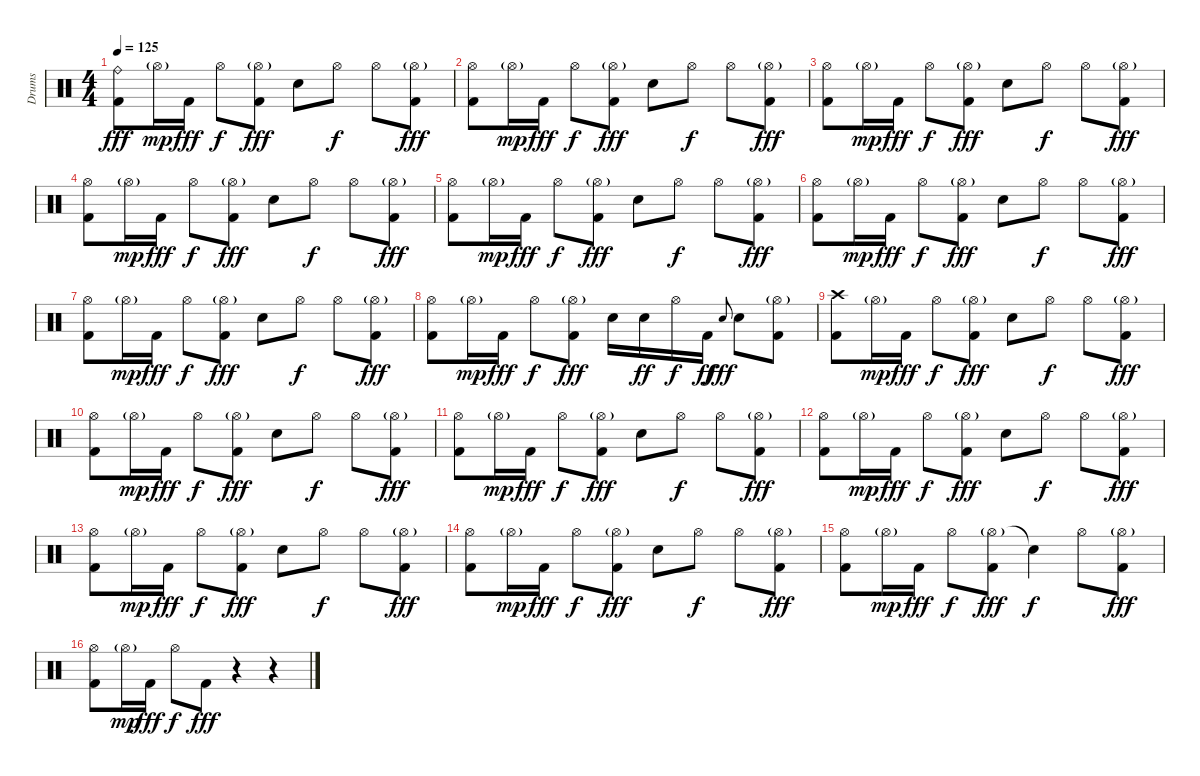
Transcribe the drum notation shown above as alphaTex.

\track ("Drums" "Drums") {instrument percussion}
\staff {score}
\articulation defaults
\ts (4 4)
\tempo 125
\clef neutral
\ks c
("Ride (bell)" "Kick (hit) 2").8{dy fff} "Hi-Hat (open)"{g}.16{dy mp} "Kick (hit) 2".16{dy fff} "Hi-Hat (open)".8{dy f} ("Hi-Hat (open)"{g} "Kick (hit) 2").8{dy fff} "Snare (hit) 2".8 "Hi-Hat (open)".8{dy f} "Hi-Hat (open)".8 ("Hi-Hat (open)"{g} "Kick (hit) 2").8{dy fff} |
("Hi-Hat (open)" "Kick (hit) 2").8 "Hi-Hat (open)"{g}.16{dy mp} "Kick (hit) 2".16{dy fff} "Hi-Hat (open)".8{dy f} ("Hi-Hat (open)"{g} "Kick (hit) 2").8{dy fff} "Snare (hit) 2".8 "Hi-Hat (open)".8{dy f} "Hi-Hat (open)".8 ("Hi-Hat (open)"{g} "Kick (hit) 2").8{dy fff} |
("Hi-Hat (open)" "Kick (hit) 2").8 "Hi-Hat (open)"{g}.16{dy mp} "Kick (hit) 2".16{dy fff} "Hi-Hat (open)".8{dy f} ("Hi-Hat (open)"{g} "Kick (hit) 2").8{dy fff} "Snare (hit) 2".8 "Hi-Hat (open)".8{dy f} "Hi-Hat (open)".8 ("Hi-Hat (open)"{g} "Kick (hit) 2").8{dy fff} |
("Hi-Hat (open)" "Kick (hit) 2").8 "Hi-Hat (open)"{g}.16{dy mp} "Kick (hit) 2".16{dy fff} "Hi-Hat (open)".8{dy f} ("Hi-Hat (open)"{g} "Kick (hit) 2").8{dy fff} "Snare (hit) 2".8 "Hi-Hat (open)".8{dy f} "Hi-Hat (open)".8 ("Hi-Hat (open)"{g} "Kick (hit) 2").8{dy fff} |
("Hi-Hat (open)" "Kick (hit) 2").8 "Hi-Hat (open)"{g}.16{dy mp} "Kick (hit) 2".16{dy fff} "Hi-Hat (open)".8{dy f} ("Hi-Hat (open)"{g} "Kick (hit) 2").8{dy fff} "Snare (hit) 2".8 "Hi-Hat (open)".8{dy f} "Hi-Hat (open)".8 ("Hi-Hat (open)"{g} "Kick (hit) 2").8{dy fff} |
("Hi-Hat (open)" "Kick (hit) 2").8 "Hi-Hat (open)"{g}.16{dy mp} "Kick (hit) 2".16{dy fff} "Hi-Hat (open)".8{dy f} ("Hi-Hat (open)"{g} "Kick (hit) 2").8{dy fff} "Snare (hit) 2".8 "Hi-Hat (open)".8{dy f} "Hi-Hat (open)".8 ("Hi-Hat (open)"{g} "Kick (hit) 2").8{dy fff} |
("Hi-Hat (open)" "Kick (hit) 2").8 "Hi-Hat (open)"{g}.16{dy mp} "Kick (hit) 2".16{dy fff} "Hi-Hat (open)".8{dy f} ("Hi-Hat (open)"{g} "Kick (hit) 2").8{dy fff} "Snare (hit) 2".8 "Hi-Hat (open)".8{dy f} "Hi-Hat (open)".8 ("Hi-Hat (open)"{g} "Kick (hit) 2").8{dy fff} |
("Hi-Hat (open)" "Kick (hit) 2").8 "Hi-Hat (open)"{g}.16{dy mp} "Kick (hit) 2".16{dy fff} "Hi-Hat (open)".8{dy f} ("Hi-Hat (open)"{g} "Kick (hit) 2").8{dy fff} "Snare (hit) 2".16 "Snare (hit) 2".16{dy ff} "Hi-Hat (open)".16{dy f} "Kick (hit) 2".16{dy ff} "Snare (hit) 2".8{gr onbeat dy fff} "Snare (hit) 2".8 ("Hi-Hat (open)"{g} "Kick (hit) 2").8 |
("Crash high (hit)" "Kick (hit) 2").8 "Hi-Hat (open)"{g}.16{dy mp} "Kick (hit) 2".16{dy fff} "Hi-Hat (open)".8{dy f} ("Hi-Hat (open)"{g} "Kick (hit) 2").8{dy fff} "Snare (hit) 2".8 "Hi-Hat (open)".8{dy f} "Hi-Hat (open)".8 ("Hi-Hat (open)"{g} "Kick (hit) 2").8{dy fff} |
("Hi-Hat (open)" "Kick (hit) 2").8 "Hi-Hat (open)"{g}.16{dy mp} "Kick (hit) 2".16{dy fff} "Hi-Hat (open)".8{dy f} ("Hi-Hat (open)"{g} "Kick (hit) 2").8{dy fff} "Snare (hit) 2".8 "Hi-Hat (open)".8{dy f} "Hi-Hat (open)".8 ("Hi-Hat (open)"{g} "Kick (hit) 2").8{dy fff} |
("Hi-Hat (open)" "Kick (hit) 2").8 "Hi-Hat (open)"{g}.16{dy mp} "Kick (hit) 2".16{dy fff} "Hi-Hat (open)".8{dy f} ("Hi-Hat (open)"{g} "Kick (hit) 2").8{dy fff} "Snare (hit) 2".8 "Hi-Hat (open)".8{dy f} "Hi-Hat (open)".8 ("Hi-Hat (open)"{g} "Kick (hit) 2").8{dy fff} |
("Hi-Hat (open)" "Kick (hit) 2").8 "Hi-Hat (open)"{g}.16{dy mp} "Kick (hit) 2".16{dy fff} "Hi-Hat (open)".8{dy f} ("Hi-Hat (open)"{g} "Kick (hit) 2").8{dy fff} "Snare (hit) 2".8 "Hi-Hat (open)".8{dy f} "Hi-Hat (open)".8 ("Hi-Hat (open)"{g} "Kick (hit) 2").8{dy fff} |
("Hi-Hat (open)" "Kick (hit) 2").8 "Hi-Hat (open)"{g}.16{dy mp} "Kick (hit) 2".16{dy fff} "Hi-Hat (open)".8{dy f} ("Hi-Hat (open)"{g} "Kick (hit) 2").8{dy fff} "Snare (hit) 2".8 "Hi-Hat (open)".8{dy f} "Hi-Hat (open)".8 ("Hi-Hat (open)"{g} "Kick (hit) 2").8{dy fff} |
("Hi-Hat (open)" "Kick (hit) 2").8 "Hi-Hat (open)"{g}.16{dy mp} "Kick (hit) 2".16{dy fff} "Hi-Hat (open)".8{dy f} ("Hi-Hat (open)"{g} "Kick (hit) 2").8{dy fff} "Snare (hit) 2".8 "Hi-Hat (open)".8{dy f} "Hi-Hat (open)".8 ("Hi-Hat (open)"{g} "Kick (hit) 2").8{dy fff} |
("Hi-Hat (open)" "Kick (hit) 2").8 "Hi-Hat (open)"{g}.16{dy mp} "Kick (hit) 2".16{dy fff} "Hi-Hat (open)".8{dy f} ("Hi-Hat (open)"{g} "Kick (hit) 2").8{dy fff} "Snare (hit)"{t}.4{dy f} "Hi-Hat (open)".8 ("Hi-Hat (open)"{g} "Kick (hit) 2").8{dy fff} |
("Hi-Hat (open)" "Kick (hit) 2").8 "Hi-Hat (open)"{g}.16{dy mp} "Kick (hit) 2".16{dy fff} "Hi-Hat (open)".8{dy f} "Kick (hit) 2".8{dy fff} r.4 r.4
